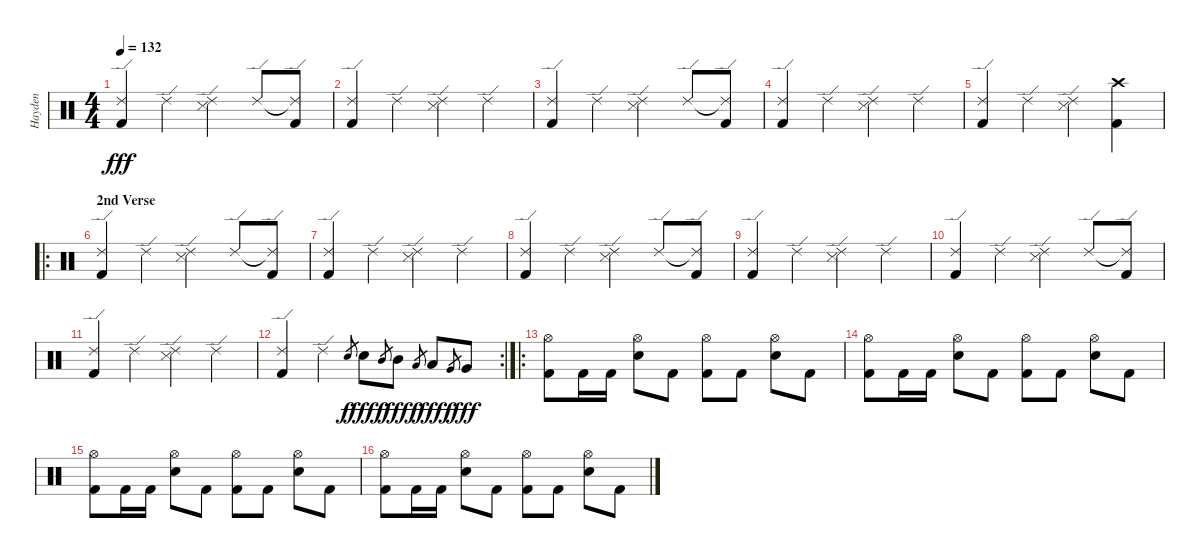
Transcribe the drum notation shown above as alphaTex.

\track ("Hayden" "Hayden") {instrument percussion}
\staff {score}
\articulation defaults
\ts (4 4)
\tempo 132
\clef neutral
\ks c
("Ride (edge) 2" "Kick (hit) 2").4{dy fff} "Ride (edge) 2".4 ("Ride (edge) 2" "Snare (side stick) 3").4 "Ride (edge) 2".8 ("Ride (edge) 2"{t} "Kick (hit) 2").8 |
("Ride (edge) 2" "Kick (hit) 2").4 "Ride (edge) 2".4 ("Ride (edge) 2" "Snare (side stick) 3").4 "Ride (edge) 2".4 |
("Ride (edge) 2" "Kick (hit) 2").4 "Ride (edge) 2".4 ("Ride (edge) 2" "Snare (side stick) 3").4 "Ride (edge) 2".8 ("Ride (edge) 2"{t} "Kick (hit) 2").8 |
("Ride (edge) 2" "Kick (hit) 2").4 "Ride (edge) 2".4 ("Ride (edge) 2" "Snare (side stick) 3").4 "Ride (edge) 2".4 |
("Ride (edge) 2" "Kick (hit) 2").4 "Ride (edge) 2".4 ("Ride (edge) 2" "Snare (side stick) 3").4 ("Crash high (hit)" "Kick (hit) 2").4 |
\ro
\section ("" "2nd Verse")
("Ride (edge) 2" "Kick (hit) 2").4 "Ride (edge) 2".4 ("Ride (edge) 2" "Snare (side stick) 3").4 "Ride (edge) 2".8 ("Ride (edge) 2"{t} "Kick (hit) 2").8 |
("Ride (edge) 2" "Kick (hit) 2").4 "Ride (edge) 2".4 ("Ride (edge) 2" "Snare (side stick) 3").4 "Ride (edge) 2".4 |
("Ride (edge) 2" "Kick (hit) 2").4 "Ride (edge) 2".4 ("Ride (edge) 2" "Snare (side stick) 3").4 "Ride (edge) 2".8 ("Ride (edge) 2"{t} "Kick (hit) 2").8 |
("Ride (edge) 2" "Kick (hit) 2").4 "Ride (edge) 2".4 ("Ride (edge) 2" "Snare (side stick) 3").4 "Ride (edge) 2".4 |
("Ride (edge) 2" "Kick (hit) 2").4 "Ride (edge) 2".4 ("Ride (edge) 2" "Snare (side stick) 3").4 "Ride (edge) 2".8 ("Ride (edge) 2"{t} "Kick (hit) 2").8 |
("Ride (edge) 2" "Kick (hit) 2").4 "Ride (edge) 2".4 ("Ride (edge) 2" "Snare (side stick) 3").4 "Ride (edge) 2".4 |
\rc 2
("Ride (edge) 2" "Kick (hit) 2").4 "Ride (edge) 2".4 "Electric Snare (hit)".8{gr dy f} "Electric Snare (hit)".8{dy fff} "Mid Tom (hit)".8{gr dy f} "Mid Tom (hit)".8{dy fff} "Low Tom (hit)".8{gr dy f} "Low Tom (hit)".8{dy fff} "Very Low Tom (hit)".8{gr dy f} "Very Low Tom (hit)".8{dy fff} |
\ro
("Kick (hit) 2" "Hi-Hat (open)").8 "Kick (hit) 2".16 "Kick (hit) 2".16 ("Hi-Hat (open)" "Electric Snare (hit)").8 "Kick (hit) 2".8 ("Hi-Hat (open)" "Kick (hit) 2").8 "Kick (hit) 2".8 ("Hi-Hat (open)" "Electric Snare (hit)").8 "Kick (hit) 2".8 |
("Kick (hit) 2" "Hi-Hat (open)").8 "Kick (hit) 2".16 "Kick (hit) 2".16 ("Hi-Hat (open)" "Electric Snare (hit)").8 "Kick (hit) 2".8 ("Hi-Hat (open)" "Kick (hit) 2").8 "Kick (hit) 2".8 ("Hi-Hat (open)" "Electric Snare (hit)").8 "Kick (hit) 2".8 |
("Kick (hit) 2" "Hi-Hat (open)").8 "Kick (hit) 2".16 "Kick (hit) 2".16 ("Hi-Hat (open)" "Electric Snare (hit)").8 "Kick (hit) 2".8 ("Hi-Hat (open)" "Kick (hit) 2").8 "Kick (hit) 2".8 ("Hi-Hat (open)" "Electric Snare (hit)").8 "Kick (hit) 2".8 |
("Kick (hit) 2" "Hi-Hat (open)").8 "Kick (hit) 2".16 "Kick (hit) 2".16 ("Hi-Hat (open)" "Electric Snare (hit)").8 "Kick (hit) 2".8 ("Hi-Hat (open)" "Kick (hit) 2").8 "Kick (hit) 2".8 ("Hi-Hat (open)" "Electric Snare (hit)").8 "Kick (hit) 2".8
